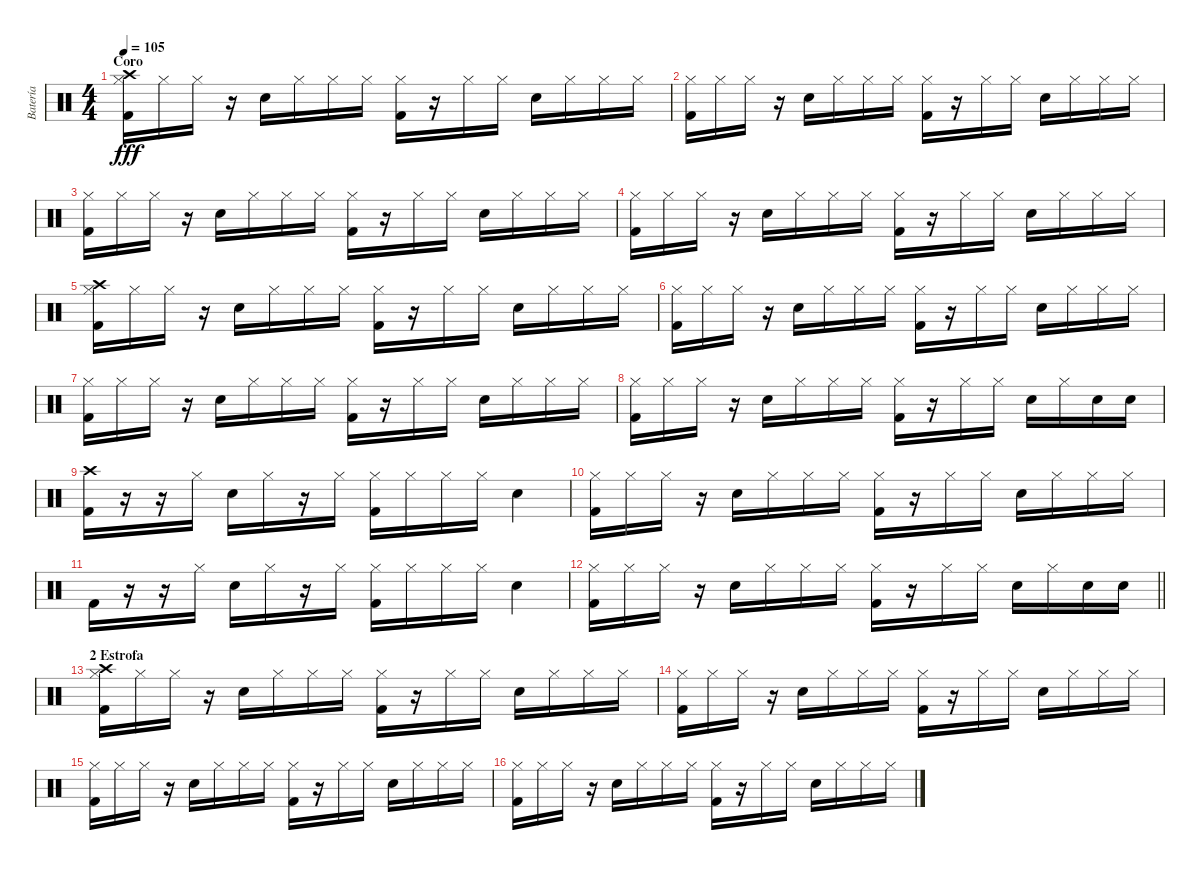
\track ("Batería" "Batería") {instrument percussion}
\staff {score}
\articulation defaults
\ts (4 4)
\section ("" "Coro")
\tempo 105
\clef neutral
\ks c
("Crash high (hit)" "Hi-Hat (closed)" "Kick (hit) 2").16{dy fff} "Hi-Hat (closed)".16 "Hi-Hat (closed)".16 r.16 "Electric Snare (hit)".16 "Hi-Hat (closed)".16 "Hi-Hat (closed)".16 "Hi-Hat (closed)".16 ("Hi-Hat (closed)" "Kick (hit) 2").16 r.16 "Hi-Hat (closed)".16 "Hi-Hat (closed)".16 "Electric Snare (hit)".16 "Hi-Hat (closed)".16 "Hi-Hat (closed)".16 "Hi-Hat (closed)".16 |
("Hi-Hat (closed)" "Kick (hit) 2").16 "Hi-Hat (closed)".16 "Hi-Hat (closed)".16 r.16 "Electric Snare (hit)".16 "Hi-Hat (closed)".16 "Hi-Hat (closed)".16 "Hi-Hat (closed)".16 ("Hi-Hat (closed)" "Kick (hit) 2").16 r.16 "Hi-Hat (closed)".16 "Hi-Hat (closed)".16 "Electric Snare (hit)".16 "Hi-Hat (closed)".16 "Hi-Hat (closed)".16 "Hi-Hat (closed)".16 |
("Hi-Hat (closed)" "Kick (hit) 2").16 "Hi-Hat (closed)".16 "Hi-Hat (closed)".16 r.16 "Electric Snare (hit)".16 "Hi-Hat (closed)".16 "Hi-Hat (closed)".16 "Hi-Hat (closed)".16 ("Hi-Hat (closed)" "Kick (hit) 2").16 r.16 "Hi-Hat (closed)".16 "Hi-Hat (closed)".16 "Electric Snare (hit)".16 "Hi-Hat (closed)".16 "Hi-Hat (closed)".16 "Hi-Hat (closed)".16 |
("Hi-Hat (closed)" "Kick (hit) 2").16 "Hi-Hat (closed)".16 "Hi-Hat (closed)".16 r.16 "Electric Snare (hit)".16 "Hi-Hat (closed)".16 "Hi-Hat (closed)".16 "Hi-Hat (closed)".16 ("Hi-Hat (closed)" "Kick (hit) 2").16 r.16 "Hi-Hat (closed)".16 "Hi-Hat (closed)".16 "Electric Snare (hit)".16 "Hi-Hat (closed)".16 "Hi-Hat (closed)".16 "Hi-Hat (closed)".16 |
("Crash high (hit)" "Hi-Hat (closed)" "Kick (hit) 2").16 "Hi-Hat (closed)".16 "Hi-Hat (closed)".16 r.16 "Electric Snare (hit)".16 "Hi-Hat (closed)".16 "Hi-Hat (closed)".16 "Hi-Hat (closed)".16 ("Hi-Hat (closed)" "Kick (hit) 2").16 r.16 "Hi-Hat (closed)".16 "Hi-Hat (closed)".16 "Electric Snare (hit)".16 "Hi-Hat (closed)".16 "Hi-Hat (closed)".16 "Hi-Hat (closed)".16 |
("Hi-Hat (closed)" "Kick (hit) 2").16 "Hi-Hat (closed)".16 "Hi-Hat (closed)".16 r.16 "Electric Snare (hit)".16 "Hi-Hat (closed)".16 "Hi-Hat (closed)".16 "Hi-Hat (closed)".16 ("Hi-Hat (closed)" "Kick (hit) 2").16 r.16 "Hi-Hat (closed)".16 "Hi-Hat (closed)".16 "Electric Snare (hit)".16 "Hi-Hat (closed)".16 "Hi-Hat (closed)".16 "Hi-Hat (closed)".16 |
("Hi-Hat (closed)" "Kick (hit) 2").16 "Hi-Hat (closed)".16 "Hi-Hat (closed)".16 r.16 "Electric Snare (hit)".16 "Hi-Hat (closed)".16 "Hi-Hat (closed)".16 "Hi-Hat (closed)".16 ("Hi-Hat (closed)" "Kick (hit) 2").16 r.16 "Hi-Hat (closed)".16 "Hi-Hat (closed)".16 "Electric Snare (hit)".16 "Hi-Hat (closed)".16 "Hi-Hat (closed)".16 "Hi-Hat (closed)".16 |
("Hi-Hat (closed)" "Kick (hit) 2").16 "Hi-Hat (closed)".16 "Hi-Hat (closed)".16 r.16 "Electric Snare (hit)".16 "Hi-Hat (closed)".16 "Hi-Hat (closed)".16 "Hi-Hat (closed)".16 ("Hi-Hat (closed)" "Kick (hit) 2").16 r.16 "Hi-Hat (closed)".16 "Hi-Hat (closed)".16 "Snare (hit) 2".16 "Hi-Hat (closed)".16 "Snare (hit) 2".16 "Snare (hit) 2".16 |
("Crash high (hit)" "Kick (hit) 2").16 r.16 r.16 "Hi-Hat (closed)".16 "Electric Snare (hit)".16 "Hi-Hat (closed)".16 r.16 "Hi-Hat (closed)".16 ("Hi-Hat (closed)" "Kick (hit) 2").16 "Hi-Hat (closed)".16 "Hi-Hat (closed)".16 "Hi-Hat (closed)".16 "Electric Snare (hit)".4 |
("Hi-Hat (closed)" "Kick (hit) 2").16 "Hi-Hat (closed)".16 "Hi-Hat (closed)".16 r.16 "Electric Snare (hit)".16 "Hi-Hat (closed)".16 "Hi-Hat (closed)".16 "Hi-Hat (closed)".16 ("Hi-Hat (closed)" "Kick (hit) 2").16 r.16 "Hi-Hat (closed)".16 "Hi-Hat (closed)".16 "Electric Snare (hit)".16 "Hi-Hat (closed)".16 "Hi-Hat (closed)".16 "Hi-Hat (closed)".16 |
"Kick (hit) 2".16 r.16 r.16 "Hi-Hat (closed)".16 "Electric Snare (hit)".16 "Hi-Hat (closed)".16 r.16 "Hi-Hat (closed)".16 ("Hi-Hat (closed)" "Kick (hit) 2").16 "Hi-Hat (closed)".16 "Hi-Hat (closed)".16 "Hi-Hat (closed)".16 "Electric Snare (hit)".4 |
\barLineRight lightlight
("Hi-Hat (closed)" "Kick (hit) 2").16 "Hi-Hat (closed)".16 "Hi-Hat (closed)".16 r.16 "Electric Snare (hit)".16 "Hi-Hat (closed)".16 "Hi-Hat (closed)".16 "Hi-Hat (closed)".16 ("Hi-Hat (closed)" "Kick (hit) 2").16 r.16 "Hi-Hat (closed)".16 "Hi-Hat (closed)".16 "Snare (hit) 2".16 "Hi-Hat (closed)".16 "Snare (hit) 2".16 "Snare (hit) 2".16 |
\section ("" "2 Estrofa")
("Crash high (hit)" "Hi-Hat (closed)" "Kick (hit) 2").16 "Hi-Hat (closed)".16 "Hi-Hat (closed)".16 r.16 "Electric Snare (hit)".16 "Hi-Hat (closed)".16 "Hi-Hat (closed)".16 "Hi-Hat (closed)".16 ("Hi-Hat (closed)" "Kick (hit) 2").16 r.16 "Hi-Hat (closed)".16 "Hi-Hat (closed)".16 "Electric Snare (hit)".16 "Hi-Hat (closed)".16 "Hi-Hat (closed)".16 "Hi-Hat (closed)".16 |
("Hi-Hat (closed)" "Kick (hit) 2").16 "Hi-Hat (closed)".16 "Hi-Hat (closed)".16 r.16 "Electric Snare (hit)".16 "Hi-Hat (closed)".16 "Hi-Hat (closed)".16 "Hi-Hat (closed)".16 ("Hi-Hat (closed)" "Kick (hit) 2").16 r.16 "Hi-Hat (closed)".16 "Hi-Hat (closed)".16 "Electric Snare (hit)".16 "Hi-Hat (closed)".16 "Hi-Hat (closed)".16 "Hi-Hat (closed)".16 |
("Hi-Hat (closed)" "Kick (hit) 2").16 "Hi-Hat (closed)".16 "Hi-Hat (closed)".16 r.16 "Electric Snare (hit)".16 "Hi-Hat (closed)".16 "Hi-Hat (closed)".16 "Hi-Hat (closed)".16 ("Hi-Hat (closed)" "Kick (hit) 2").16 r.16 "Hi-Hat (closed)".16 "Hi-Hat (closed)".16 "Electric Snare (hit)".16 "Hi-Hat (closed)".16 "Hi-Hat (closed)".16 "Hi-Hat (closed)".16 |
("Hi-Hat (closed)" "Kick (hit) 2").16 "Hi-Hat (closed)".16 "Hi-Hat (closed)".16 r.16 "Electric Snare (hit)".16 "Hi-Hat (closed)".16 "Hi-Hat (closed)".16 "Hi-Hat (closed)".16 ("Hi-Hat (closed)" "Kick (hit) 2").16 r.16 "Hi-Hat (closed)".16 "Hi-Hat (closed)".16 "Electric Snare (hit)".16 "Hi-Hat (closed)".16 "Hi-Hat (closed)".16 "Hi-Hat (closed)".16
